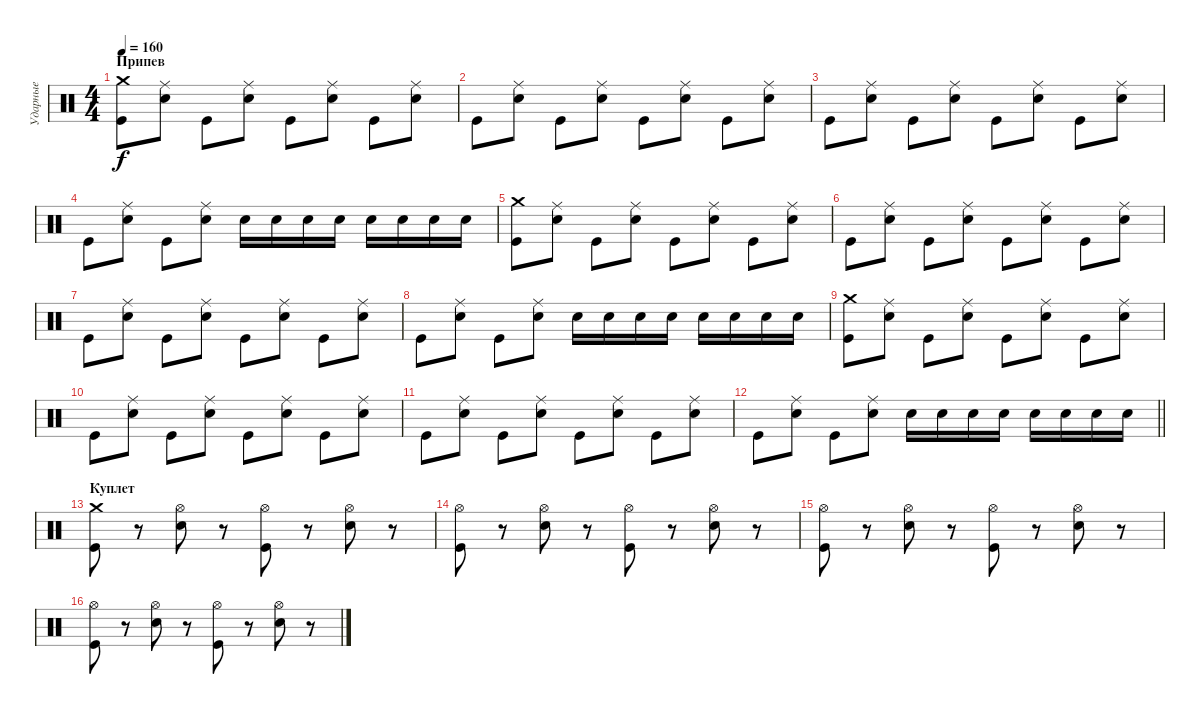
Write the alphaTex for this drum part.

\track ("Ударные" "Ударные") {instrument percussion}
\staff {score}
\articulation defaults
\ts (4 4)
\section ("" "Припев")
\tempo 160
\clef neutral
\ks c
("Crash medium (hit)" "Kick (hit)").8{dy f} ("Ride (middle)" "Electric Snare (hit)").8 "Kick (hit)".8 ("Ride (middle)" "Electric Snare (hit)").8 "Kick (hit)".8 ("Ride (middle)" "Electric Snare (hit)").8 "Kick (hit)".8 ("Ride (middle)" "Electric Snare (hit)").8 |
"Kick (hit)".8 ("Ride (middle)" "Electric Snare (hit)").8 "Kick (hit)".8 ("Ride (middle)" "Electric Snare (hit)").8 "Kick (hit)".8 ("Ride (middle)" "Electric Snare (hit)").8 "Kick (hit)".8 ("Ride (middle)" "Electric Snare (hit)").8 |
"Kick (hit)".8 ("Ride (middle)" "Electric Snare (hit)").8 "Kick (hit)".8 ("Ride (middle)" "Electric Snare (hit)").8 "Kick (hit)".8 ("Ride (middle)" "Electric Snare (hit)").8 "Kick (hit)".8 ("Ride (middle)" "Electric Snare (hit)").8 |
"Kick (hit)".8 ("Ride (middle)" "Electric Snare (hit)").8 "Kick (hit)".8 ("Ride (middle)" "Electric Snare (hit)").8 "Electric Snare (hit)".16 "Electric Snare (hit)".16 "Electric Snare (hit)".16 "Electric Snare (hit)".16 "Electric Snare (hit)".16 "Electric Snare (hit)".16 "Electric Snare (hit)".16 "Electric Snare (hit)".16 |
("Crash medium (hit)" "Kick (hit)").8 ("Ride (middle)" "Electric Snare (hit)").8 "Kick (hit)".8 ("Ride (middle)" "Electric Snare (hit)").8 "Kick (hit)".8 ("Ride (middle)" "Electric Snare (hit)").8 "Kick (hit)".8 ("Ride (middle)" "Electric Snare (hit)").8 |
"Kick (hit)".8 ("Ride (middle)" "Electric Snare (hit)").8 "Kick (hit)".8 ("Ride (middle)" "Electric Snare (hit)").8 "Kick (hit)".8 ("Ride (middle)" "Electric Snare (hit)").8 "Kick (hit)".8 ("Ride (middle)" "Electric Snare (hit)").8 |
"Kick (hit)".8 ("Ride (middle)" "Electric Snare (hit)").8 "Kick (hit)".8 ("Ride (middle)" "Electric Snare (hit)").8 "Kick (hit)".8 ("Ride (middle)" "Electric Snare (hit)").8 "Kick (hit)".8 ("Ride (middle)" "Electric Snare (hit)").8 |
"Kick (hit)".8 ("Ride (middle)" "Electric Snare (hit)").8 "Kick (hit)".8 ("Ride (middle)" "Electric Snare (hit)").8 "Electric Snare (hit)".16 "Electric Snare (hit)".16 "Electric Snare (hit)".16 "Electric Snare (hit)".16 "Electric Snare (hit)".16 "Electric Snare (hit)".16 "Electric Snare (hit)".16 "Electric Snare (hit)".16 |
("Crash medium (hit)" "Kick (hit)").8 ("Ride (middle)" "Electric Snare (hit)").8 "Kick (hit)".8 ("Ride (middle)" "Electric Snare (hit)").8 "Kick (hit)".8 ("Ride (middle)" "Electric Snare (hit)").8 "Kick (hit)".8 ("Ride (middle)" "Electric Snare (hit)").8 |
"Kick (hit)".8 ("Ride (middle)" "Electric Snare (hit)").8 "Kick (hit)".8 ("Ride (middle)" "Electric Snare (hit)").8 "Kick (hit)".8 ("Ride (middle)" "Electric Snare (hit)").8 "Kick (hit)".8 ("Ride (middle)" "Electric Snare (hit)").8 |
"Kick (hit)".8 ("Ride (middle)" "Electric Snare (hit)").8 "Kick (hit)".8 ("Ride (middle)" "Electric Snare (hit)").8 "Kick (hit)".8 ("Ride (middle)" "Electric Snare (hit)").8 "Kick (hit)".8 ("Ride (middle)" "Electric Snare (hit)").8 |
\barLineRight lightlight "Kick (hit)".8
("Ride (middle)" "Electric Snare (hit)").8 "Kick (hit)".8 ("Ride (middle)" "Electric Snare (hit)").8 "Electric Snare (hit)".16 "Electric Snare (hit)".16 "Electric Snare (hit)".16 "Electric Snare (hit)".16 "Electric Snare (hit)".16 "Electric Snare (hit)".16 "Electric Snare (hit)".16 "Electric Snare (hit)".16 |
\section ("" "Куплет")
("Crash medium (hit)" "Kick (hit)").8 r.8 ("Hi-Hat (open)" "Electric Snare (hit)").8 r.8 ("Hi-Hat (open)" "Kick (hit)").8 r.8 ("Hi-Hat (open)" "Electric Snare (hit)").8 r.8 |
("Hi-Hat (open)" "Kick (hit)").8 r.8 ("Hi-Hat (open)" "Electric Snare (hit)").8 r.8 ("Hi-Hat (open)" "Kick (hit)").8 r.8 ("Hi-Hat (open)" "Electric Snare (hit)").8 r.8 |
("Hi-Hat (open)" "Kick (hit)").8 r.8 ("Hi-Hat (open)" "Electric Snare (hit)").8 r.8 ("Hi-Hat (open)" "Kick (hit)").8 r.8 ("Hi-Hat (open)" "Electric Snare (hit)").8 r.8 |
("Hi-Hat (open)" "Kick (hit)").8 r.8 ("Hi-Hat (open)" "Electric Snare (hit)").8 r.8 ("Hi-Hat (open)" "Kick (hit)").8 r.8 ("Hi-Hat (open)" "Electric Snare (hit)").8 r.8
